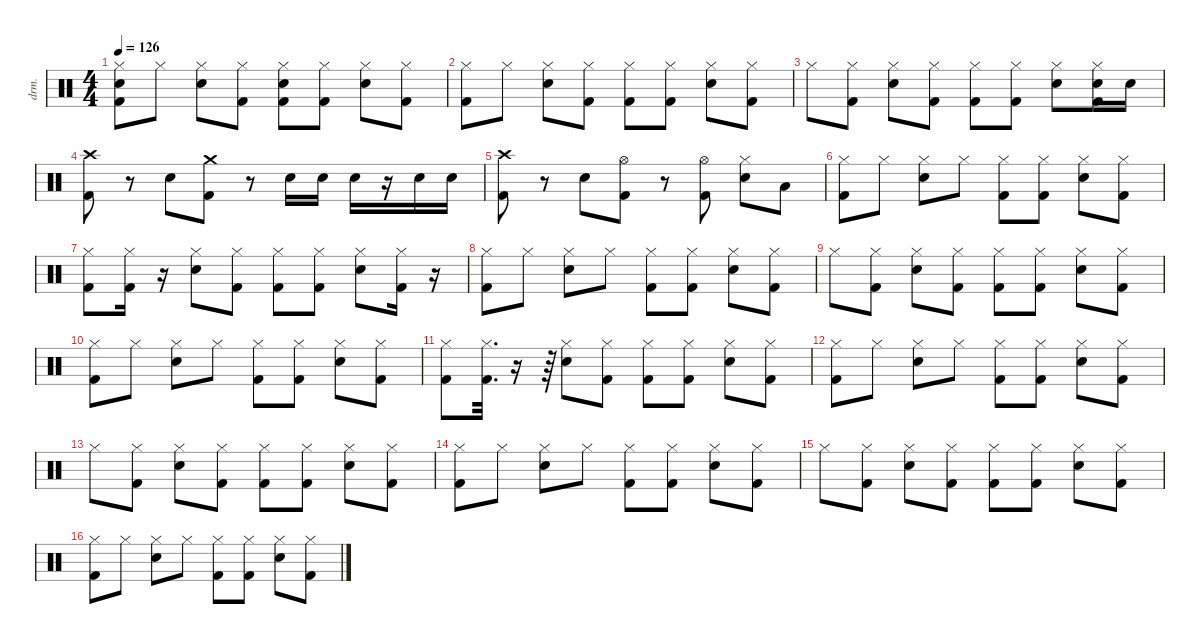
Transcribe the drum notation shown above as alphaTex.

\defaultSystemsLayout 4
\hideDynamics
\bracketExtendMode nobrackets
\otherSystemsTrackNameOrientation horizontal
\track ("Drums" "drm.") {instrument percussion}
\staff {score}
\articulation defaults
\ts (4 4)
\tempo 126
\clef neutral
\ks c
("Snare (hit) 2" "Kick (hit) 2" "Hi-Hat (closed)").8{dy f beam Down} "Hi-Hat (closed)".8{beam Down} ("Snare (hit) 2" "Hi-Hat (closed)").8{beam Down} ("Kick (hit) 2" "Hi-Hat (closed)").8{beam Down} ("Snare (hit) 2" "Hi-Hat (closed)" "Kick (hit) 2").8{beam Down} ("Hi-Hat (closed)" "Kick (hit) 2").8{beam Down} ("Snare (hit) 2" "Hi-Hat (closed)").8{beam Down} ("Kick (hit) 2" "Hi-Hat (closed)").8{beam Down} |
("Kick (hit) 2" "Hi-Hat (closed)").8{beam Down} "Hi-Hat (closed)".8{beam Down} ("Snare (hit) 2" "Hi-Hat (closed)").8{beam Down} ("Kick (hit) 2" "Hi-Hat (closed)").8{beam Down} ("Hi-Hat (closed)" "Kick (hit) 2").8{beam Down} ("Hi-Hat (closed)" "Kick (hit) 2").8{beam Down} ("Snare (hit) 2" "Hi-Hat (closed)").8{beam Down} ("Kick (hit) 2" "Hi-Hat (closed)").8{beam Down} |
"Hi-Hat (closed)".8{beam Down} ("Kick (hit) 2" "Hi-Hat (closed)").8{beam Down} ("Snare (hit) 2" "Hi-Hat (closed)").8{beam Down} ("Kick (hit) 2" "Hi-Hat (closed)").8{beam Down} ("Kick (hit) 2" "Hi-Hat (closed)").8{beam Down} ("Hi-Hat (closed)" "Kick (hit) 2").8{beam Down} ("Snare (hit) 2" "Hi-Hat (closed)").8{beam Down} ("Snare (hit) 2" "Kick (hit) 2" "Hi-Hat (closed)").16{beam Down} "Snare (hit) 2".16{beam Down} |
("Kick (hit) 2" "Crash high (hit)").8{beam Down} r.8{beam Down} "Snare (hit) 2".8{beam Down} ("Crash medium (hit)" "Kick (hit) 2").8{beam Down} r.8{beam Down} "Snare (hit) 2".16{beam Down} "Snare (hit) 2".16{beam Down} "Snare (hit) 2".16{beam Down} r.16{beam Down} "Snare (hit) 2".16{beam Down} "Snare (hit) 2".16{beam Down} |
("Kick (hit) 2" "Crash high (hit)").8{beam Down} r.8{beam Down} "Snare (hit) 2".8{beam Down} ("Hi-Hat (open)" "Kick (hit) 2").8{beam Down} r.8{beam Down} ("Hi-Hat (open)" "Kick (hit) 2").8{beam Down} ("Snare (hit) 2" "Hi-Hat (closed)").8{beam Down} "Low Tom (hit)".8{beam Down} |
("Kick (hit) 2" "Hi-Hat (closed)").8{beam Down} "Hi-Hat (closed)".8{beam Down} ("Snare (hit) 2" "Hi-Hat (closed)").8{beam Down} "Hi-Hat (closed)".8{beam Down} ("Hi-Hat (closed)" "Kick (hit) 2").8{beam Down} ("Hi-Hat (closed)" "Kick (hit) 2").8{beam Down} ("Snare (hit) 2" "Hi-Hat (closed)").8{beam Down} ("Kick (hit) 2" "Hi-Hat (closed)").8{beam Down} |
("Kick (hit) 2" "Hi-Hat (closed)").8{beam Down} ("Kick (hit) 2" "Hi-Hat (closed)").16{beam Down} r.16{beam Down} ("Snare (hit) 2" "Hi-Hat (closed)").8{beam Down} ("Kick (hit) 2" "Hi-Hat (closed)").8{beam Down} ("Hi-Hat (closed)" "Kick (hit) 2").8{beam Down} ("Hi-Hat (closed)" "Kick (hit) 2").8{beam Down} ("Snare (hit) 2" "Hi-Hat (closed)").8{beam Down} ("Kick (hit) 2" "Hi-Hat (closed)").16{beam Down} r.16{beam Down} |
("Kick (hit) 2" "Hi-Hat (closed)").8{beam Down} "Hi-Hat (closed)".8{beam Down} ("Snare (hit) 2" "Hi-Hat (closed)").8{beam Down} "Hi-Hat (closed)".8{beam Down} ("Hi-Hat (closed)" "Kick (hit) 2").8{beam Down} ("Hi-Hat (closed)" "Kick (hit) 2").8{beam Down} ("Snare (hit) 2" "Hi-Hat (closed)").8{beam Down} ("Hi-Hat (closed)" "Kick (hit) 2").8{beam Down} |
"Hi-Hat (closed)".8{beam Down} ("Kick (hit) 2" "Hi-Hat (closed)").8{beam Down} ("Snare (hit) 2" "Hi-Hat (closed)").8{beam Down} ("Kick (hit) 2" "Hi-Hat (closed)").8{beam Down} ("Hi-Hat (closed)" "Kick (hit) 2").8{beam Down} ("Hi-Hat (closed)" "Kick (hit) 2").8{beam Down} ("Snare (hit) 2" "Hi-Hat (closed)").8{beam Down} ("Kick (hit) 2" "Hi-Hat (closed)").8{beam Down} |
("Kick (hit) 2" "Hi-Hat (closed)").8{beam Down} "Hi-Hat (closed)".8{beam Down} ("Snare (hit) 2" "Hi-Hat (closed)").8{beam Down} "Hi-Hat (closed)".8{beam Down} ("Hi-Hat (closed)" "Kick (hit) 2").8{beam Down} ("Hi-Hat (closed)" "Kick (hit) 2").8{beam Down} ("Snare (hit) 2" "Hi-Hat (closed)").8{beam Down} ("Kick (hit) 2" "Hi-Hat (closed)").8{beam Down} |
("Kick (hit) 2" "Hi-Hat (closed)").8{beam Down} ("Kick (hit) 2" "Hi-Hat (closed)").32{d beam Down} r.16{beam Down} r.64{beam Down} ("Snare (hit) 2" "Hi-Hat (closed)").8{beam Down} ("Kick (hit) 2" "Hi-Hat (closed)").8{beam Down} ("Hi-Hat (closed)" "Kick (hit) 2").8{beam Down} ("Hi-Hat (closed)" "Kick (hit) 2").8{beam Down} ("Snare (hit) 2" "Hi-Hat (closed)").8{beam Down} ("Kick (hit) 2" "Hi-Hat (closed)").8{beam Down} |
("Kick (hit) 2" "Hi-Hat (closed)").8{beam Down} "Hi-Hat (closed)".8{beam Down} ("Snare (hit) 2" "Hi-Hat (closed)").8{beam Down} "Hi-Hat (closed)".8{beam Down} ("Hi-Hat (closed)" "Kick (hit) 2").8{beam Down} ("Hi-Hat (closed)" "Kick (hit) 2").8{beam Down} ("Snare (hit) 2" "Hi-Hat (closed)").8{beam Down} ("Hi-Hat (closed)" "Kick (hit) 2").8{beam Down} |
"Hi-Hat (closed)".8{beam Down} ("Kick (hit) 2" "Hi-Hat (closed)").8{beam Down} ("Snare (hit) 2" "Hi-Hat (closed)").8{beam Down} ("Kick (hit) 2" "Hi-Hat (closed)").8{beam Down} ("Hi-Hat (closed)" "Kick (hit) 2").8{beam Down} ("Hi-Hat (closed)" "Kick (hit) 2").8{beam Down} ("Snare (hit) 2" "Hi-Hat (closed)").8{beam Down} ("Kick (hit) 2" "Hi-Hat (closed)").8{beam Down} |
("Kick (hit) 2" "Hi-Hat (closed)").8{beam Down} "Hi-Hat (closed)".8{beam Down} ("Snare (hit) 2" "Hi-Hat (closed)").8{beam Down} "Hi-Hat (closed)".8{beam Down} ("Hi-Hat (closed)" "Kick (hit) 2").8{beam Down} ("Hi-Hat (closed)" "Kick (hit) 2").8{beam Down} ("Snare (hit) 2" "Hi-Hat (closed)").8{beam Down} ("Kick (hit) 2" "Hi-Hat (closed)").8{beam Down} |
"Hi-Hat (closed)".8{beam Down} ("Hi-Hat (closed)" "Kick (hit) 2").8{beam Down} ("Snare (hit) 2" "Hi-Hat (closed)").8{beam Down} ("Kick (hit) 2" "Hi-Hat (closed)").8{beam Down} ("Hi-Hat (closed)" "Kick (hit) 2").8{beam Down} ("Hi-Hat (closed)" "Kick (hit) 2").8{beam Down} ("Snare (hit) 2" "Hi-Hat (closed)").8{beam Down} ("Kick (hit) 2" "Hi-Hat (closed)").8{beam Down} |
("Kick (hit) 2" "Hi-Hat (closed)").8{beam Down} "Hi-Hat (closed)".8{beam Down} ("Snare (hit) 2" "Hi-Hat (closed)").8{beam Down} "Hi-Hat (closed)".8{beam Down} ("Hi-Hat (closed)" "Kick (hit) 2").8{beam Down} ("Hi-Hat (closed)" "Kick (hit) 2").8{beam Down} ("Snare (hit) 2" "Hi-Hat (closed)").8{beam Down} ("Hi-Hat (closed)" "Kick (hit) 2").8{beam Down}
